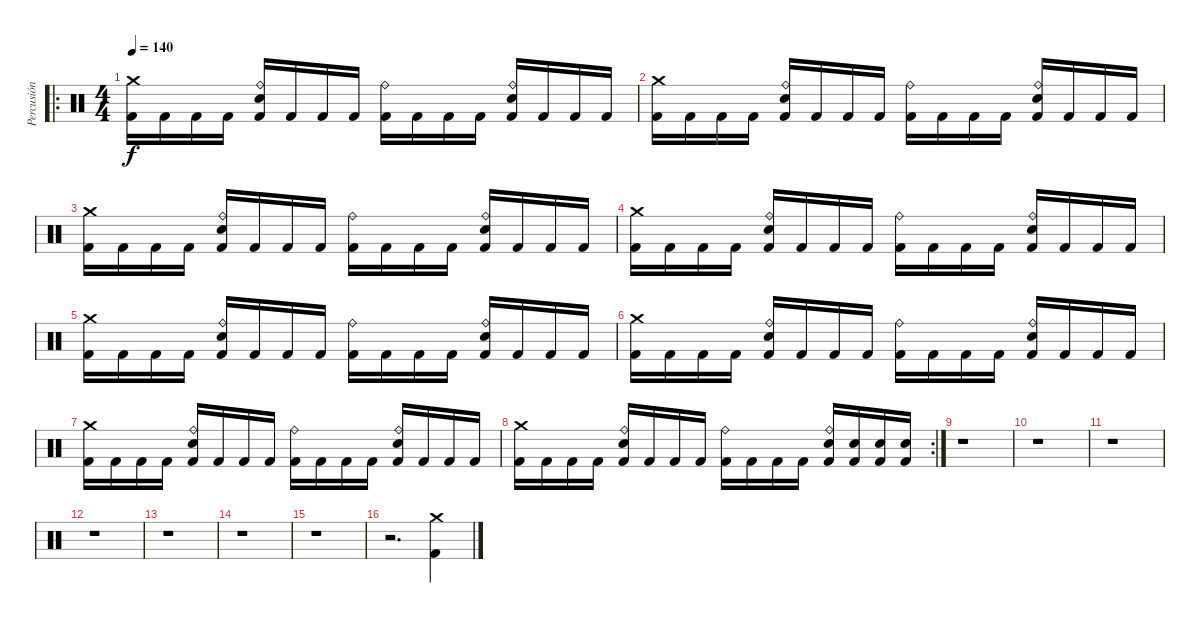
\track ("Percusión" "Percusión") {instrument percussion}
\staff {score}
\articulation defaults
\ro
\ts (4 4)
\tempo 140
\clef neutral
\ks c
("Crash medium (hit)" "Kick (hit) 2").16{dy f} "Kick (hit) 2".16 "Kick (hit) 2".16 "Kick (hit) 2".16 ("Ride (bell)" "Snare (hit) 2" "Kick (hit) 2").16 "Kick (hit) 2".16 "Kick (hit) 2".16 "Kick (hit) 2".16 ("Ride (bell)" "Kick (hit) 2").16 "Kick (hit) 2".16 "Kick (hit) 2".16 "Kick (hit) 2".16 ("Ride (bell)" "Snare (hit) 2" "Kick (hit) 2").16 "Kick (hit) 2".16 "Kick (hit) 2".16 "Kick (hit) 2".16 |
("Crash medium (hit)" "Kick (hit) 2").16 "Kick (hit) 2".16 "Kick (hit) 2".16 "Kick (hit) 2".16 ("Ride (bell)" "Snare (hit) 2" "Kick (hit) 2").16 "Kick (hit) 2".16 "Kick (hit) 2".16 "Kick (hit) 2".16 ("Ride (bell)" "Kick (hit) 2").16 "Kick (hit) 2".16 "Kick (hit) 2".16 "Kick (hit) 2".16 ("Ride (bell)" "Snare (hit) 2" "Kick (hit) 2").16 "Kick (hit) 2".16 "Kick (hit) 2".16 "Kick (hit) 2".16 |
("Crash medium (hit)" "Kick (hit) 2").16 "Kick (hit) 2".16 "Kick (hit) 2".16 "Kick (hit) 2".16 ("Ride (bell)" "Snare (hit) 2" "Kick (hit) 2").16 "Kick (hit) 2".16 "Kick (hit) 2".16 "Kick (hit) 2".16 ("Ride (bell)" "Kick (hit) 2").16 "Kick (hit) 2".16 "Kick (hit) 2".16 "Kick (hit) 2".16 ("Ride (bell)" "Snare (hit) 2" "Kick (hit) 2").16 "Kick (hit) 2".16 "Kick (hit) 2".16 "Kick (hit) 2".16 |
("Crash medium (hit)" "Kick (hit) 2").16 "Kick (hit) 2".16 "Kick (hit) 2".16 "Kick (hit) 2".16 ("Ride (bell)" "Snare (hit) 2" "Kick (hit) 2").16 "Kick (hit) 2".16 "Kick (hit) 2".16 "Kick (hit) 2".16 ("Ride (bell)" "Kick (hit) 2").16 "Kick (hit) 2".16 "Kick (hit) 2".16 "Kick (hit) 2".16 ("Ride (bell)" "Snare (hit) 2" "Kick (hit) 2").16 "Kick (hit) 2".16 "Kick (hit) 2".16 "Kick (hit) 2".16 |
("Crash medium (hit)" "Kick (hit) 2").16 "Kick (hit) 2".16 "Kick (hit) 2".16 "Kick (hit) 2".16 ("Ride (bell)" "Snare (hit) 2" "Kick (hit) 2").16 "Kick (hit) 2".16 "Kick (hit) 2".16 "Kick (hit) 2".16 ("Ride (bell)" "Kick (hit) 2").16 "Kick (hit) 2".16 "Kick (hit) 2".16 "Kick (hit) 2".16 ("Ride (bell)" "Snare (hit) 2" "Kick (hit) 2").16 "Kick (hit) 2".16 "Kick (hit) 2".16 "Kick (hit) 2".16 |
("Crash medium (hit)" "Kick (hit) 2").16 "Kick (hit) 2".16 "Kick (hit) 2".16 "Kick (hit) 2".16 ("Ride (bell)" "Snare (hit) 2" "Kick (hit) 2").16 "Kick (hit) 2".16 "Kick (hit) 2".16 "Kick (hit) 2".16 ("Ride (bell)" "Kick (hit) 2").16 "Kick (hit) 2".16 "Kick (hit) 2".16 "Kick (hit) 2".16 ("Ride (bell)" "Snare (hit) 2" "Kick (hit) 2").16 "Kick (hit) 2".16 "Kick (hit) 2".16 "Kick (hit) 2".16 |
("Crash medium (hit)" "Kick (hit) 2").16 "Kick (hit) 2".16 "Kick (hit) 2".16 "Kick (hit) 2".16 ("Ride (bell)" "Snare (hit) 2" "Kick (hit) 2").16 "Kick (hit) 2".16 "Kick (hit) 2".16 "Kick (hit) 2".16 ("Ride (bell)" "Kick (hit) 2").16 "Kick (hit) 2".16 "Kick (hit) 2".16 "Kick (hit) 2".16 ("Ride (bell)" "Snare (hit) 2" "Kick (hit) 2").16 "Kick (hit) 2".16 "Kick (hit) 2".16 "Kick (hit) 2".16 |
\rc 2
("Crash medium (hit)" "Kick (hit) 2").16 "Kick (hit) 2".16 "Kick (hit) 2".16 "Kick (hit) 2".16 ("Ride (bell)" "Snare (hit) 2" "Kick (hit) 2").16 "Kick (hit) 2".16 "Kick (hit) 2".16 "Kick (hit) 2".16 ("Ride (bell)" "Kick (hit) 2").16 "Kick (hit) 2".16 "Kick (hit) 2".16 "Kick (hit) 2".16 ("Ride (bell)" "Snare (hit) 2" "Kick (hit) 2").16 ("Snare (hit) 2" "Kick (hit) 2").16 ("Snare (hit) 2" "Kick (hit) 2").16 ("Snare (hit) 2" "Kick (hit) 2").16 |
r.1 |
r.1 |
r.1 |
r.1 |
r.1 |
r.1 |
r.1 |
r.2{d} ("Crash medium (hit)" "Kick (hit) 2").4
